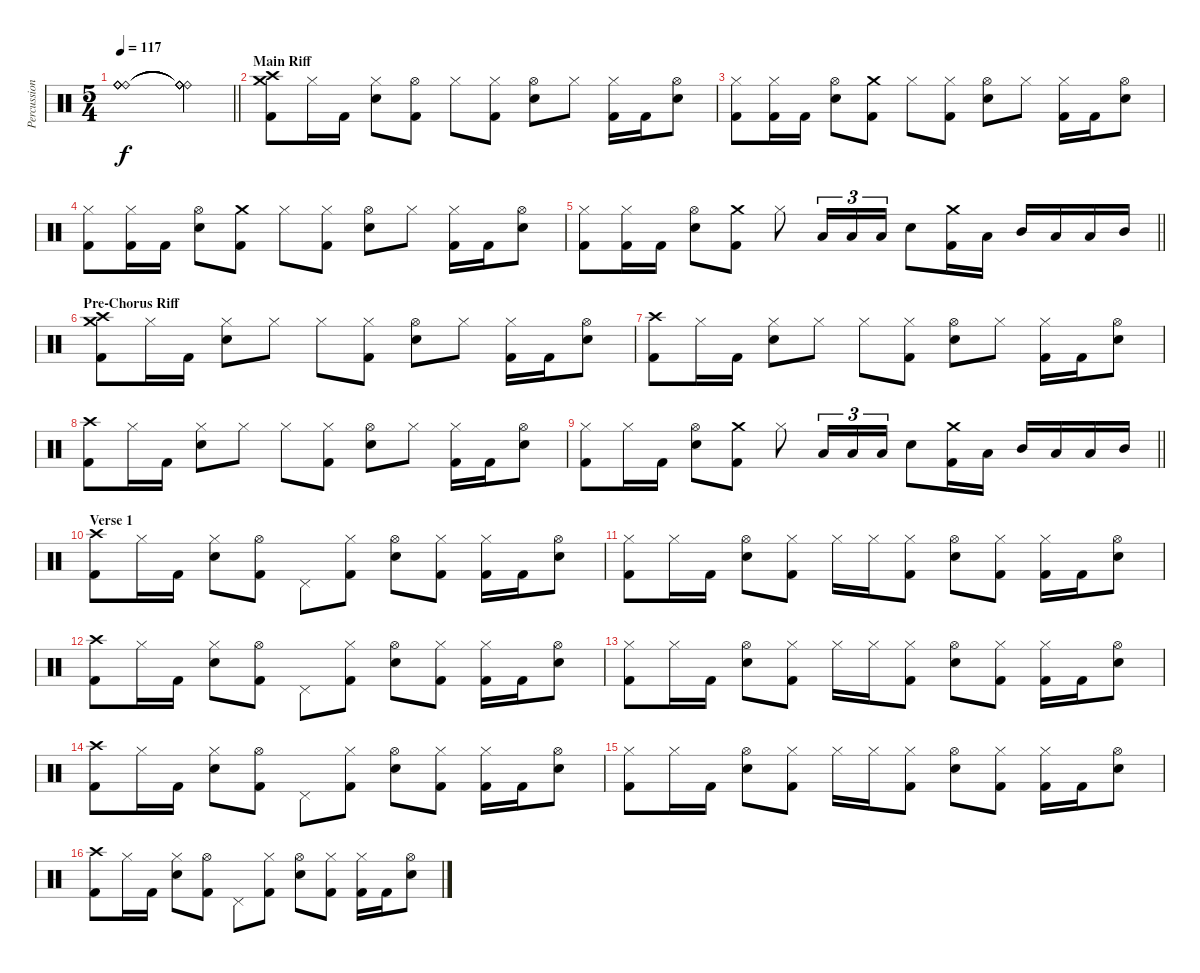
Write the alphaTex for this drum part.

\track ("Percussion" "Percussion") {instrument percussion}
\staff {score}
\articulation defaults
\ts (5 4)
\tempo 117
\clef neutral
\barLineRight lightlight
\ks c
("Ride (bell)"{t} "Ride (bell)"{t} "Ride (bell)"{t} "Ride (bell)"{t}).1{dy f} ("Ride (bell)"{t} "Ride (bell)"{t} "Ride (bell)"{t} "Ride (bell)"{t}).4 |
\section ("" "Main Riff")
("Crash high (hit)" "Crash medium (hit)" "Kick (hit) 2").8{volume 16} "Hi-Hat (closed)".16 "Kick (hit) 2".16 ("Hi-Hat (closed)" "Electric Snare (hit)").8 ("Hi-Hat (open)" "Kick (hit) 2").8 "Hi-Hat (closed)".8 ("Hi-Hat (closed)" "Kick (hit) 2").8 ("Hi-Hat (open)" "Electric Snare (hit)").8 "Hi-Hat (closed)".8 ("Hi-Hat (closed)" "Kick (hit) 2").16 "Kick (hit) 2".16 ("Hi-Hat (open)" "Electric Snare (hit)").8 |
("Hi-Hat (closed)" "Kick (hit) 2").8 ("Hi-Hat (closed)" "Kick (hit) 2").16 "Kick (hit) 2".16 ("Hi-Hat (open)" "Electric Snare (hit)").8 ("Crash medium (hit)" "Kick (hit) 2").8 "Hi-Hat (closed)".8 ("Hi-Hat (closed)" "Kick (hit) 2").8 ("Hi-Hat (open)" "Electric Snare (hit)").8 "Hi-Hat (closed)".8 ("Hi-Hat (closed)" "Kick (hit) 2").16 "Kick (hit) 2".16 ("Hi-Hat (open)" "Electric Snare (hit)").8 |
("Hi-Hat (closed)" "Kick (hit) 2").8 ("Hi-Hat (closed)" "Kick (hit) 2").16 "Kick (hit) 2".16 ("Hi-Hat (open)" "Electric Snare (hit)").8 ("Crash medium (hit)" "Kick (hit) 2").8 "Hi-Hat (closed)".8 ("Hi-Hat (closed)" "Kick (hit) 2").8 ("Hi-Hat (open)" "Electric Snare (hit)").8 "Hi-Hat (closed)".8 ("Hi-Hat (closed)" "Kick (hit) 2").16 "Kick (hit) 2".16 ("Hi-Hat (open)" "Electric Snare (hit)").8 |
\barLineRight lightlight
("Hi-Hat (closed)" "Kick (hit) 2").8 ("Hi-Hat (closed)" "Kick (hit) 2").16 "Kick (hit) 2".16 ("Hi-Hat (open)" "Electric Snare (hit)").8 ("Crash medium (hit)" "Kick (hit) 2").8 "Hi-Hat (closed)".8 "Low Tom (hit)".16{tu (3 2)} "Low Tom (hit)".16{tu (3 2)} "Low Tom (hit)".16{tu (3 2)} "Electric Snare (hit)".8 ("Crash medium (hit)" "Kick (hit) 2").16 "Low Tom (hit)".16 "Mid Tom (hit)".16 "Low Tom (hit)".16 "Low Tom (hit)".16 "Mid Tom (hit)".16 |
\section ("" "Pre-Chorus Riff")
("Crash high (hit)" "Crash medium (hit)" "Kick (hit) 2").8 "Hi-Hat (closed)".16 "Kick (hit) 2".16 ("Hi-Hat (closed)" "Electric Snare (hit)").8 "Hi-Hat (closed)".8 "Hi-Hat (closed)".8 ("Hi-Hat (closed)" "Kick (hit) 2").8 ("Hi-Hat (open)" "Electric Snare (hit)").8 "Hi-Hat (closed)".8 ("Hi-Hat (closed)" "Kick (hit) 2").16 "Kick (hit) 2".16 ("Hi-Hat (open)" "Electric Snare (hit)").8 |
("Crash high (hit)" "Kick (hit) 2").8 "Hi-Hat (closed)".16 "Kick (hit) 2".16 ("Hi-Hat (closed)" "Electric Snare (hit)").8 "Hi-Hat (closed)".8 "Hi-Hat (closed)".8 ("Hi-Hat (closed)" "Kick (hit) 2").8 ("Hi-Hat (open)" "Electric Snare (hit)").8 "Hi-Hat (closed)".8 ("Hi-Hat (closed)" "Kick (hit) 2").16 "Kick (hit) 2".16 ("Hi-Hat (open)" "Electric Snare (hit)").8 |
("Crash high (hit)" "Kick (hit) 2").8 "Hi-Hat (closed)".16 "Kick (hit) 2".16 ("Hi-Hat (closed)" "Electric Snare (hit)").8 "Hi-Hat (closed)".8 "Hi-Hat (closed)".8 ("Hi-Hat (closed)" "Kick (hit) 2").8 ("Hi-Hat (open)" "Electric Snare (hit)").8 "Hi-Hat (closed)".8 ("Hi-Hat (closed)" "Kick (hit) 2").16 "Kick (hit) 2".16 ("Hi-Hat (open)" "Electric Snare (hit)").8 |
\barLineRight lightlight
("Hi-Hat (closed)" "Kick (hit) 2").8 "Hi-Hat (closed)".16 "Kick (hit) 2".16 ("Hi-Hat (open)" "Electric Snare (hit)").8 ("Crash medium (hit)" "Kick (hit) 2").8 "Hi-Hat (closed)".8 "Low Tom (hit)".16{tu (3 2)} "Low Tom (hit)".16{tu (3 2)} "Low Tom (hit)".16{tu (3 2)} "Electric Snare (hit)".8 ("Crash medium (hit)" "Kick (hit) 2").16 "Low Tom (hit)".16 "Mid Tom (hit)".16 "Low Tom (hit)".16 "Low Tom (hit)".16 "Mid Tom (hit)".16 |
\section ("" "Verse 1")
("Crash high (hit)" "Kick (hit) 2").8 "Hi-Hat (closed)".16 "Kick (hit) 2".16 ("Hi-Hat (closed)" "Electric Snare (hit)").8 ("Hi-Hat (open)" "Kick (hit) 2").8 "Pedal Hi-Hat (hit)".8 ("Hi-Hat (closed)" "Kick (hit) 2").8 ("Hi-Hat (open)" "Electric Snare (hit)").8 ("Hi-Hat (closed)" "Kick (hit) 2").8 ("Hi-Hat (closed)" "Kick (hit) 2").16 "Kick (hit) 2".16 ("Hi-Hat (open)" "Electric Snare (hit)").8 |
("Hi-Hat (closed)" "Kick (hit) 2").8 "Hi-Hat (closed)".16 "Kick (hit) 2".16 ("Hi-Hat (open)" "Electric Snare (hit)").8 ("Hi-Hat (closed)" "Kick (hit) 2").8 "Hi-Hat (closed)".16 "Hi-Hat (closed)".16 ("Hi-Hat (closed)" "Kick (hit) 2").8 ("Hi-Hat (open)" "Electric Snare (hit)").8 ("Hi-Hat (closed)" "Kick (hit) 2").8 ("Hi-Hat (closed)" "Kick (hit) 2").16 "Kick (hit) 2".16 ("Hi-Hat (open)" "Electric Snare (hit)").8 |
("Crash high (hit)" "Kick (hit) 2").8 "Hi-Hat (closed)".16 "Kick (hit) 2".16 ("Hi-Hat (closed)" "Electric Snare (hit)").8 ("Hi-Hat (open)" "Kick (hit) 2").8 "Pedal Hi-Hat (hit)".8 ("Hi-Hat (closed)" "Kick (hit) 2").8 ("Hi-Hat (open)" "Electric Snare (hit)").8 ("Hi-Hat (closed)" "Kick (hit) 2").8 ("Hi-Hat (closed)" "Kick (hit) 2").16 "Kick (hit) 2".16 ("Hi-Hat (open)" "Electric Snare (hit)").8 |
("Hi-Hat (closed)" "Kick (hit) 2").8 "Hi-Hat (closed)".16 "Kick (hit) 2".16 ("Hi-Hat (open)" "Electric Snare (hit)").8 ("Hi-Hat (closed)" "Kick (hit) 2").8 "Hi-Hat (closed)".16 "Hi-Hat (closed)".16 ("Hi-Hat (closed)" "Kick (hit) 2").8 ("Hi-Hat (open)" "Electric Snare (hit)").8 ("Hi-Hat (closed)" "Kick (hit) 2").8 ("Hi-Hat (closed)" "Kick (hit) 2").16 "Kick (hit) 2".16 ("Hi-Hat (open)" "Electric Snare (hit)").8 |
("Crash high (hit)" "Kick (hit) 2").8 "Hi-Hat (closed)".16 "Kick (hit) 2".16 ("Hi-Hat (closed)" "Electric Snare (hit)").8 ("Hi-Hat (open)" "Kick (hit) 2").8 "Pedal Hi-Hat (hit)".8 ("Hi-Hat (closed)" "Kick (hit) 2").8 ("Hi-Hat (open)" "Electric Snare (hit)").8 ("Hi-Hat (closed)" "Kick (hit) 2").8 ("Hi-Hat (closed)" "Kick (hit) 2").16 "Kick (hit) 2".16 ("Hi-Hat (open)" "Electric Snare (hit)").8 |
("Hi-Hat (closed)" "Kick (hit) 2").8 "Hi-Hat (closed)".16 "Kick (hit) 2".16 ("Hi-Hat (open)" "Electric Snare (hit)").8 ("Hi-Hat (closed)" "Kick (hit) 2").8 "Hi-Hat (closed)".16 "Hi-Hat (closed)".16 ("Hi-Hat (closed)" "Kick (hit) 2").8 ("Hi-Hat (open)" "Electric Snare (hit)").8 ("Hi-Hat (closed)" "Kick (hit) 2").8 ("Hi-Hat (closed)" "Kick (hit) 2").16 "Kick (hit) 2".16 ("Hi-Hat (open)" "Electric Snare (hit)").8 |
("Crash high (hit)" "Kick (hit) 2").8 "Hi-Hat (closed)".16 "Kick (hit) 2".16 ("Hi-Hat (closed)" "Electric Snare (hit)").8 ("Hi-Hat (open)" "Kick (hit) 2").8 "Pedal Hi-Hat (hit)".8 ("Hi-Hat (closed)" "Kick (hit) 2").8 ("Hi-Hat (open)" "Electric Snare (hit)").8 ("Hi-Hat (closed)" "Kick (hit) 2").8 ("Hi-Hat (closed)" "Kick (hit) 2").16 "Kick (hit) 2".16 ("Hi-Hat (open)" "Electric Snare (hit)").8
